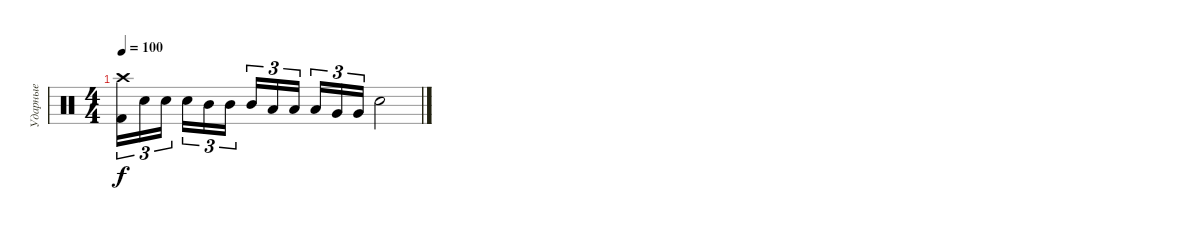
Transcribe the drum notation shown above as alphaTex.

\track ("Ударные" "Ударные") {instrument percussion}
\staff
\articulation defaults
\ts (4 4)
\tempo 100
\clef neutral
\ks c
("Kick (hit) 2" "Crash high (hit)").16{tu (3 2) dy f} "Electric Snare (hit)".16{tu (3 2)} "Electric Snare (hit)".16{tu (3 2) beam splitsecondary} "Electric Snare (hit)".16{tu (3 2)} "Mid Tom (hit)".16{tu (3 2)} "Mid Tom (hit)".16{tu (3 2)} "Mid Tom (hit)".16{tu (3 2)} "Low Tom (hit)".16{tu (3 2)} "Low Tom (hit)".16{tu (3 2) beam splitsecondary} "Low Tom (hit)".16{tu (3 2)} "Very Low Tom (hit)".16{tu (3 2)} "Very Low Tom (hit)".16{tu (3 2)} "Electric Snare (hit)".2
